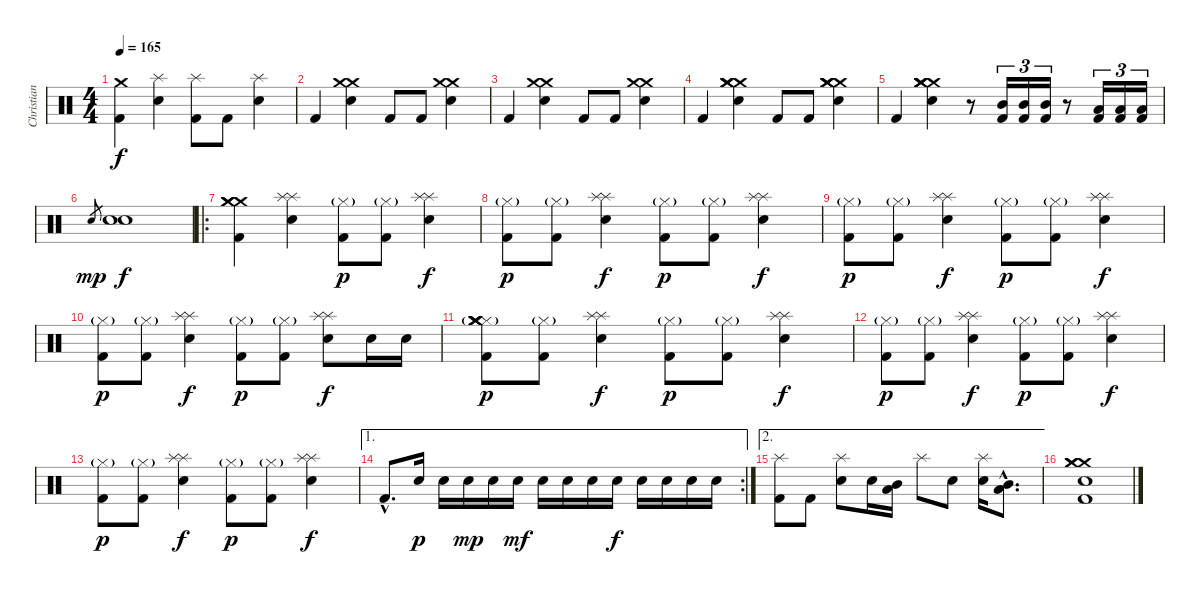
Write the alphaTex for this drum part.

\track ("Christian Batteria" "Christian ") {instrument percussion}
\staff {score}
\articulation defaults
\ts (4 4)
\tempo 165
\clef neutral
\ks c
("Crash medium (hit)"{t} "Kick (hit) 2").4{dy f} ("Splash (hit)" "Snare (hit) 2").4 ("Splash (hit)" "Kick (hit) 2").8 "Kick (hit) 2".8 ("Splash (hit)" "Snare (hit) 2").4 |
"Kick (hit) 2".4 ("Crash medium (hit)" "Crash medium (hit)" "Snare (hit) 2").4 "Kick (hit) 2".8 "Kick (hit) 2".8 ("Crash medium (hit)" "Crash medium (hit)" "Snare (hit) 2").4 |
"Kick (hit) 2".4 ("Crash medium (hit)" "Crash medium (hit)" "Snare (hit) 2").4 "Kick (hit) 2".8 "Kick (hit) 2".8 ("Crash medium (hit)" "Crash medium (hit)" "Snare (hit) 2").4 |
"Kick (hit) 2".4 ("Crash medium (hit)" "Crash medium (hit)" "Crash medium (hit)" "Crash medium (hit)" "Snare (hit) 2").4 "Kick (hit) 2".8 "Kick (hit) 2".8 ("Crash medium (hit)" "Crash medium (hit)" "Crash medium (hit)" "Crash medium (hit)" "Snare (hit) 2").4 |
"Kick (hit) 2".4 ("Crash medium (hit)" "Crash medium (hit)" "Crash medium (hit)" "Crash medium (hit)" "Snare (hit) 2").4 r.8 ("Mid Tom (hit)" "Kick (hit) 2").16{tu (3 2)} ("Mid Tom (hit)" "Kick (hit) 2").16{tu (3 2)} ("Mid Tom (hit)" "Kick (hit) 2").16{tu (3 2)} r.8 ("Low Tom (hit)" "Kick (hit) 2").16{tu (3 2)} ("Low Tom (hit)" "Kick (hit) 2").16{tu (3 2)} ("Low Tom (hit)" "Kick (hit) 2").16{tu (3 2)} |
"Snare (hit) 2".8{gr dy mp} ("Snare (hit) 2" "Snare (hit) 2").1{dy f} |
\ro
("Crash medium (hit)" "Crash medium (hit)" "Crash medium (hit)" "Kick (hit) 2").4 ("Splash (hit)" "Splash (hit)" "Snare (hit) 2").4 ("Hi-Hat (closed)"{g} "Kick (hit) 2").8{dy p} ("Hi-Hat (closed)"{g} "Kick (hit) 2").8 ("Splash (hit)" "Splash (hit)" "Snare (hit) 2").4{dy f} |
("Hi-Hat (closed)"{g} "Kick (hit) 2").8{dy p} ("Hi-Hat (closed)"{g} "Kick (hit) 2").8 ("Splash (hit)" "Splash (hit)" "Snare (hit) 2").4{dy f} ("Hi-Hat (closed)"{g} "Kick (hit) 2").8{dy p} ("Hi-Hat (closed)"{g} "Kick (hit) 2").8 ("Splash (hit)" "Splash (hit)" "Snare (hit) 2").4{dy f} |
("Hi-Hat (closed)"{g} "Kick (hit) 2").8{dy p} ("Hi-Hat (closed)"{g} "Kick (hit) 2").8 ("Splash (hit)" "Splash (hit)" "Snare (hit) 2").4{dy f} ("Hi-Hat (closed)"{g} "Kick (hit) 2").8{dy p} ("Hi-Hat (closed)"{g} "Kick (hit) 2").8 ("Splash (hit)" "Splash (hit)" "Snare (hit) 2").4{dy f} |
("Hi-Hat (closed)"{g} "Kick (hit) 2").8{dy p} ("Hi-Hat (closed)"{g} "Kick (hit) 2").8 ("Splash (hit)" "Splash (hit)" "Snare (hit) 2").4{dy f} ("Hi-Hat (closed)"{g} "Kick (hit) 2").8{dy p} ("Hi-Hat (closed)"{g} "Kick (hit) 2").8 ("Splash (hit)" "Splash (hit)" "Snare (hit) 2").8{dy f} "Electric Snare (hit)".16 "Electric Snare (hit)".16 |
("Hi-Hat (closed)"{g} "Crash medium (hit)" "Crash medium (hit)" "Crash medium (hit)" "Crash medium (hit)" "Kick (hit) 2").8{dy p} ("Hi-Hat (closed)"{g} "Kick (hit) 2").8 ("Splash (hit)" "Splash (hit)" "Snare (hit) 2").4{dy f} ("Hi-Hat (closed)"{g} "Kick (hit) 2").8{dy p} ("Hi-Hat (closed)"{g} "Kick (hit) 2").8 ("Splash (hit)" "Splash (hit)" "Snare (hit) 2").4{dy f} |
("Hi-Hat (closed)"{g} "Kick (hit) 2").8{dy p} ("Hi-Hat (closed)"{g} "Kick (hit) 2").8 ("Splash (hit)" "Splash (hit)" "Snare (hit) 2").4{dy f} ("Hi-Hat (closed)"{g} "Kick (hit) 2").8{dy p} ("Hi-Hat (closed)"{g} "Kick (hit) 2").8 ("Splash (hit)" "Splash (hit)" "Snare (hit) 2").4{dy f} |
("Hi-Hat (closed)"{g} "Kick (hit) 2").8{dy p} ("Hi-Hat (closed)"{g} "Kick (hit) 2").8 ("Splash (hit)" "Splash (hit)" "Snare (hit) 2").4{dy f} ("Hi-Hat (closed)"{g} "Kick (hit) 2").8{dy p} ("Hi-Hat (closed)"{g} "Kick (hit) 2").8 ("Splash (hit)" "Splash (hit)" "Snare (hit) 2").4{dy f} |
\ae 1
\rc 2 "Kick (hit) 2"{hac}.8{d} "Electric Snare (hit)".16{dy p} "Electric Snare (hit)".16 "Electric Snare (hit)".16{dy mp} "Electric Snare (hit)".16 "Electric Snare (hit)".16{dy mf} "Electric Snare (hit)".16 "Electric Snare (hit)".16 "Electric Snare (hit)".16 "Electric Snare (hit)".16{dy f} "Electric Snare (hit)".16 "Electric Snare (hit)".16 "Electric Snare (hit)".16 "Electric Snare (hit)".16
|
\ae 2
("Splash (hit)" "Kick (hit) 2").8 "Kick (hit) 2".8 ("Splash (hit)" "Snare (hit) 2").8 "Snare (hit) 2".16 ("Mid Tom (hit)" "Low Tom (hit)").16 "Splash (hit)".8 "Snare (hit) 2".8 ("Splash (hit)" "Snare (hit) 2").16 ("Mid Tom (hit)"{hac} "Low Tom (hit)"{hac}).8{d} |
("Crash medium (hit)" "Crash medium (hit)" "Crash medium (hit)" "Snare (hit) 2" "Kick (hit) 2").1
